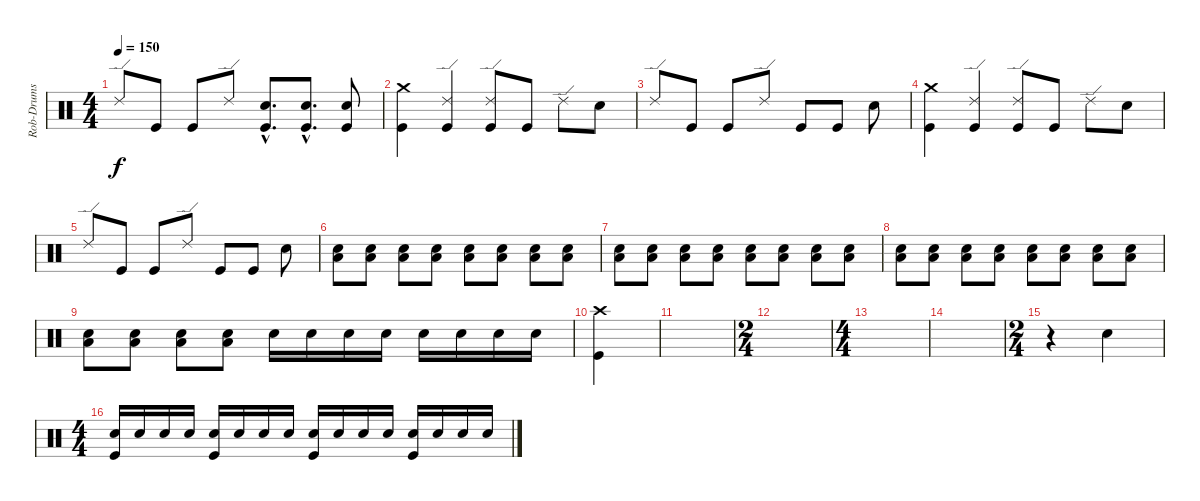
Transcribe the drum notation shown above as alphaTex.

\track ("Rob-Drums" "Rob-Drums") {instrument percussion}
\staff {score}
\articulation defaults
\ts (4 4)
\tempo 150
\clef neutral
\ks c "Ride (edge) 2".8{dy f} "Kick (hit)".8 "Kick (hit)".8 "Ride (edge) 2".8
("Snare (hit) 2"{hac} "Kick (hit)"{hac}).8{d} ("Snare (hit) 2"{hac} "Kick (hit)"{hac}).8{d} ("Snare (hit) 2" "Kick (hit)").8 |
("Crash medium (hit)" "Kick (hit)").4 ("Ride (edge) 2" "Kick (hit)").4 ("Ride (edge) 2" "Kick (hit)").8 "Kick (hit)".8 "Ride (edge) 2".8 "Snare (hit) 2".8 |
"Ride (edge) 2".8 "Kick (hit)".8 "Kick (hit)".8 "Ride (edge) 2".8 "Kick (hit)".8 "Kick (hit)".8 "Snare (hit) 2".8 |
("Crash medium (hit)" "Kick (hit)").4 ("Ride (edge) 2" "Kick (hit)").4 ("Ride (edge) 2" "Kick (hit)").8 "Kick (hit)".8 "Ride (edge) 2".8 "Snare (hit) 2".8 |
"Ride (edge) 2".8 "Kick (hit)".8 "Kick (hit)".8 "Ride (edge) 2".8 "Kick (hit)".8 "Kick (hit)".8 "Snare (hit) 2".8 |
("Snare (hit) 2" "Low Floor Tom (hit)").8 ("Snare (hit) 2" "Low Floor Tom (hit)").8 ("Snare (hit) 2" "Low Floor Tom (hit)").8 ("Snare (hit) 2" "Low Floor Tom (hit)").8 ("Snare (hit) 2" "Low Floor Tom (hit)").8 ("Snare (hit) 2" "Low Floor Tom (hit)").8 ("Snare (hit) 2" "Low Floor Tom (hit)").8 ("Snare (hit) 2" "Low Floor Tom (hit)").8 |
("Snare (hit) 2" "Low Floor Tom (hit)").8 ("Snare (hit) 2" "Low Floor Tom (hit)").8 ("Snare (hit) 2" "Low Floor Tom (hit)").8 ("Snare (hit) 2" "Low Floor Tom (hit)").8 ("Snare (hit) 2" "Low Floor Tom (hit)").8 ("Snare (hit) 2" "Low Floor Tom (hit)").8 ("Snare (hit) 2" "Low Floor Tom (hit)").8 ("Snare (hit) 2" "Low Floor Tom (hit)").8 |
("Snare (hit) 2" "Low Floor Tom (hit)").8 ("Snare (hit) 2" "Low Floor Tom (hit)").8 ("Snare (hit) 2" "Low Floor Tom (hit)").8 ("Snare (hit) 2" "Low Floor Tom (hit)").8 ("Snare (hit) 2" "Low Floor Tom (hit)").8 ("Snare (hit) 2" "Low Floor Tom (hit)").8 ("Snare (hit) 2" "Low Floor Tom (hit)").8 ("Snare (hit) 2" "Low Floor Tom (hit)").8 |
("Snare (hit) 2" "Low Floor Tom (hit)").8 ("Snare (hit) 2" "Low Floor Tom (hit)").8 ("Snare (hit) 2" "Low Floor Tom (hit)").8 ("Snare (hit) 2" "Low Floor Tom (hit)").8 "Snare (hit) 2".16 "Snare (hit) 2".16 "Snare (hit) 2".16 "Snare (hit) 2".16 "Snare (hit) 2".16 "Snare (hit) 2".16 "Snare (hit) 2".16 "Snare (hit) 2".16 |
("Crash high (hit)" "Kick (hit)").4 |
|
\ts (2 4)
|
\ts (4 4)
|
|
\ts (2 4)
r.4 "Snare (hit) 2".4 |
\ts (4 4)
("Snare (hit) 2" "Kick (hit)").16{volume 6} "Snare (hit) 2".16 "Snare (hit) 2".16 "Snare (hit) 2".16 ("Snare (hit) 2" "Kick (hit)").16 "Snare (hit) 2".16 "Snare (hit) 2".16 "Snare (hit) 2".16 ("Snare (hit) 2" "Kick (hit)").16 "Snare (hit) 2".16 "Snare (hit) 2".16 "Snare (hit) 2".16 ("Snare (hit) 2" "Kick (hit)").16 "Snare (hit) 2".16 "Snare (hit) 2".16 "Snare (hit) 2".16
